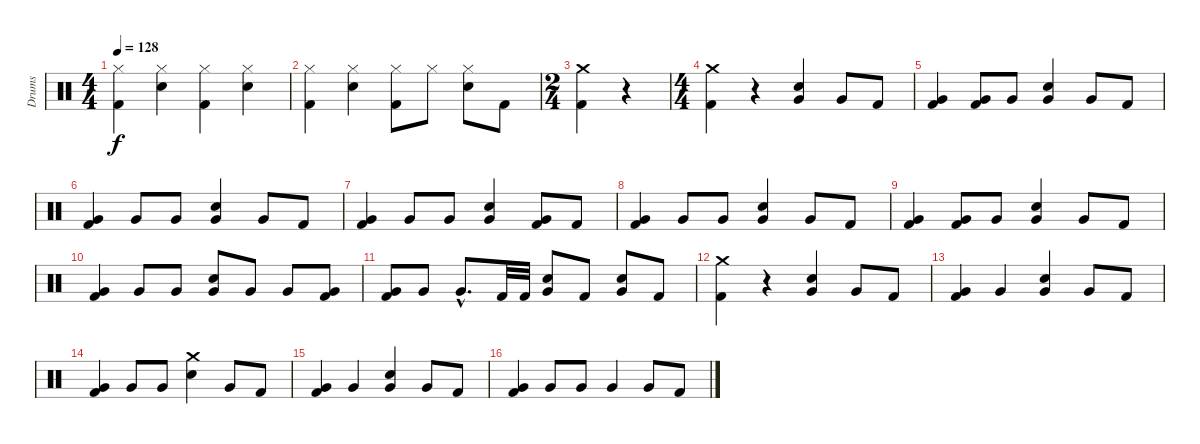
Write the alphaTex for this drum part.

\track ("Drums" "Drums") {instrument percussion}
\staff {score}
\articulation defaults
\ts (4 4)
\tempo 128
\clef neutral
\ks c
("Kick (hit) 2" "Hi-Hat (closed)").4{dy f} ("Snare (hit) 2" "Hi-Hat (closed)").4 ("Kick (hit) 2" "Hi-Hat (closed)").4 ("Snare (hit) 2" "Hi-Hat (closed)").4 |
("Kick (hit) 2" "Hi-Hat (closed)").4 ("Snare (hit) 2" "Hi-Hat (closed)").4 ("Hi-Hat (closed)" "Kick (hit) 2").8 "Hi-Hat (closed)".8 ("Snare (hit) 2" "Hi-Hat (closed)").8 "Kick (hit) 2".8 |
\ts (2 4)
("Kick (hit) 2" "Crash medium (hit)").4 r.4 |
\ts (4 4)
("Kick (hit) 2" "Crash medium (hit)").4 r.4 ("Very Low Tom (hit)" "Snare (hit) 2").4 "Very Low Tom (hit)".8 "Kick (hit) 2".8 |
("Kick (hit) 2" "Very Low Tom (hit)").4 ("Kick (hit) 2" "Very Low Tom (hit)").8 "Very Low Tom (hit)".8 ("Snare (hit) 2" "Very Low Tom (hit)").4 "Very Low Tom (hit)".8 "Kick (hit) 2".8 |
("Kick (hit) 2" "Very Low Tom (hit)").4 "Very Low Tom (hit)".8 "Very Low Tom (hit)".8 ("Snare (hit) 2" "Very Low Tom (hit)").4 "Very Low Tom (hit)".8 "Kick (hit) 2".8 |
("Kick (hit) 2" "Very Low Tom (hit)").4 "Very Low Tom (hit)".8 "Very Low Tom (hit)".8 ("Snare (hit) 2" "Very Low Tom (hit)").4 ("Very Low Tom (hit)" "Kick (hit) 2").8 "Kick (hit) 2".8 |
("Kick (hit) 2" "Very Low Tom (hit)").4 "Very Low Tom (hit)".8 "Very Low Tom (hit)".8 ("Snare (hit) 2" "Very Low Tom (hit)").4 "Very Low Tom (hit)".8 "Kick (hit) 2".8 |
("Kick (hit) 2" "Very Low Tom (hit)").4 ("Kick (hit) 2" "Very Low Tom (hit)").8 "Very Low Tom (hit)".8 ("Snare (hit) 2" "Very Low Tom (hit)").4 "Very Low Tom (hit)".8 "Kick (hit) 2".8 |
("Kick (hit) 2" "Very Low Tom (hit)").4 "Very Low Tom (hit)".8 "Very Low Tom (hit)".8 ("Snare (hit) 2" "Very Low Tom (hit)").8 "Very Low Tom (hit)".8 "Very Low Tom (hit)".8 ("Kick (hit) 2" "Very Low Tom (hit)").8 |
("Kick (hit) 2" "Very Low Tom (hit)").8 "Very Low Tom (hit)".8 "Very Low Tom (hit)"{hac}.8{d} "Kick (hit) 2".32 "Kick (hit) 2".32 ("Very Low Tom (hit)" "Snare (hit) 2").8 "Kick (hit) 2".8 ("Snare (hit) 2" "Very Low Tom (hit)").8 "Kick (hit) 2".8 |
("Kick (hit) 2" "Crash medium (hit)").4 r.4 ("Snare (hit) 2" "Very Low Tom (hit)").4 "Very Low Tom (hit)".8 "Kick (hit) 2".8 |
("Kick (hit) 2" "Very Low Tom (hit)").4 "Very Low Tom (hit)".4 ("Snare (hit) 2" "Very Low Tom (hit)").4 "Very Low Tom (hit)".8 "Kick (hit) 2".8 |
("Kick (hit) 2" "Very Low Tom (hit)").4 "Very Low Tom (hit)".8 "Very Low Tom (hit)".8 ("Crash medium (hit)" "Snare (hit) 2").4 "Very Low Tom (hit)".8 "Kick (hit) 2".8 |
("Kick (hit) 2" "Very Low Tom (hit)").4 "Very Low Tom (hit)".4 ("Snare (hit) 2" "Very Low Tom (hit)").4 "Very Low Tom (hit)".8 "Kick (hit) 2".8 |
("Very Low Tom (hit)" "Kick (hit) 2").4 "Very Low Tom (hit)".8 "Very Low Tom (hit)".8 "Very Low Tom (hit)".4 "Very Low Tom (hit)".8 "Kick (hit) 2".8
